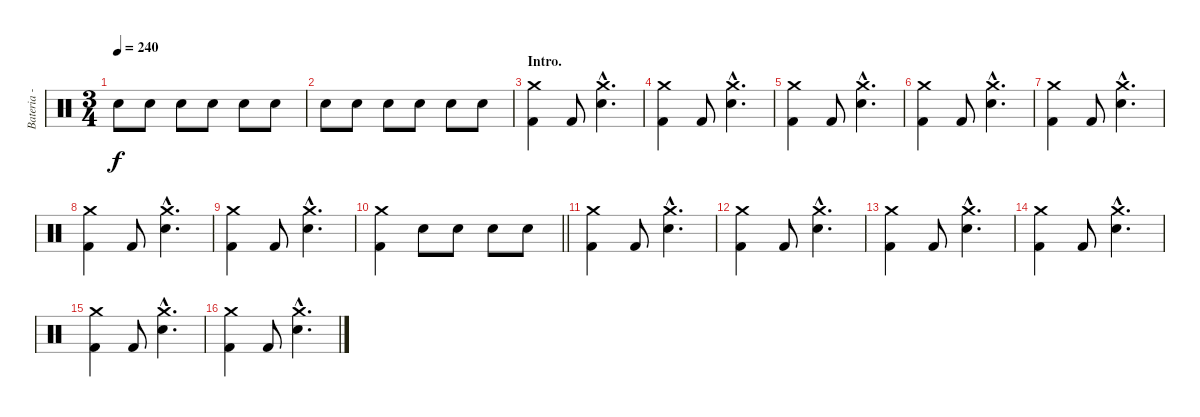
\track ("Bateria - Larzon" "Bateria - ") {instrument percussion}
\staff {score}
\articulation defaults
\ts (3 4)
\tempo 240
\clef neutral
\ks c "Snare (hit) 2".8{dy f} "Snare (hit) 2".8 "Snare (hit) 2".8 "Snare (hit) 2".8 "Snare (hit) 2".8 "Snare (hit) 2".8
|
"Snare (hit) 2".8 "Snare (hit) 2".8 "Snare (hit) 2".8 "Snare (hit) 2".8 "Snare (hit) 2".8 "Snare (hit) 2".8 |
\section ("" "Intro.")
("Kick (hit) 2" "Crash medium (hit)").4 "Kick (hit) 2".8 ("Snare (hit) 2"{hac} "Crash medium (hit)"{hac}).4{d} |
("Kick (hit) 2" "Crash medium (hit)").4 "Kick (hit) 2".8 ("Snare (hit) 2"{hac} "Crash medium (hit)"{hac}).4{d} |
("Kick (hit) 2" "Crash medium (hit)").4 "Kick (hit) 2".8 ("Snare (hit) 2"{hac} "Crash medium (hit)"{hac}).4{d} |
("Kick (hit) 2" "Crash medium (hit)").4 "Kick (hit) 2".8 ("Snare (hit) 2"{hac} "Crash medium (hit)"{hac}).4{d} |
("Kick (hit) 2" "Crash medium (hit)").4 "Kick (hit) 2".8 ("Snare (hit) 2"{hac} "Crash medium (hit)"{hac}).4{d} |
("Kick (hit) 2" "Crash medium (hit)").4 "Kick (hit) 2".8 ("Snare (hit) 2"{hac} "Crash medium (hit)"{hac}).4{d} |
("Kick (hit) 2" "Crash medium (hit)").4 "Kick (hit) 2".8 ("Snare (hit) 2"{hac} "Crash medium (hit)"{hac}).4{d} |
\barLineRight lightlight
("Kick (hit) 2" "Crash medium (hit)").4 "Snare (hit) 2".8 "Snare (hit) 2".8 "Snare (hit) 2".8 "Snare (hit) 2".8 |
("Kick (hit) 2" "Crash medium (hit)").4 "Kick (hit) 2".8 ("Snare (hit) 2"{hac} "Crash medium (hit)"{hac}).4{d} |
("Kick (hit) 2" "Crash medium (hit)").4 "Kick (hit) 2".8 ("Snare (hit) 2"{hac} "Crash medium (hit)"{hac}).4{d} |
("Kick (hit) 2" "Crash medium (hit)").4 "Kick (hit) 2".8 ("Snare (hit) 2"{hac} "Crash medium (hit)"{hac}).4{d} |
("Kick (hit) 2" "Crash medium (hit)").4 "Kick (hit) 2".8 ("Snare (hit) 2"{hac} "Crash medium (hit)"{hac}).4{d} |
("Kick (hit) 2" "Crash medium (hit)").4 "Kick (hit) 2".8 ("Snare (hit) 2"{hac} "Crash medium (hit)"{hac}).4{d} |
("Kick (hit) 2" "Crash medium (hit)").4 "Kick (hit) 2".8 ("Snare (hit) 2"{hac} "Crash medium (hit)"{hac}).4{d}
